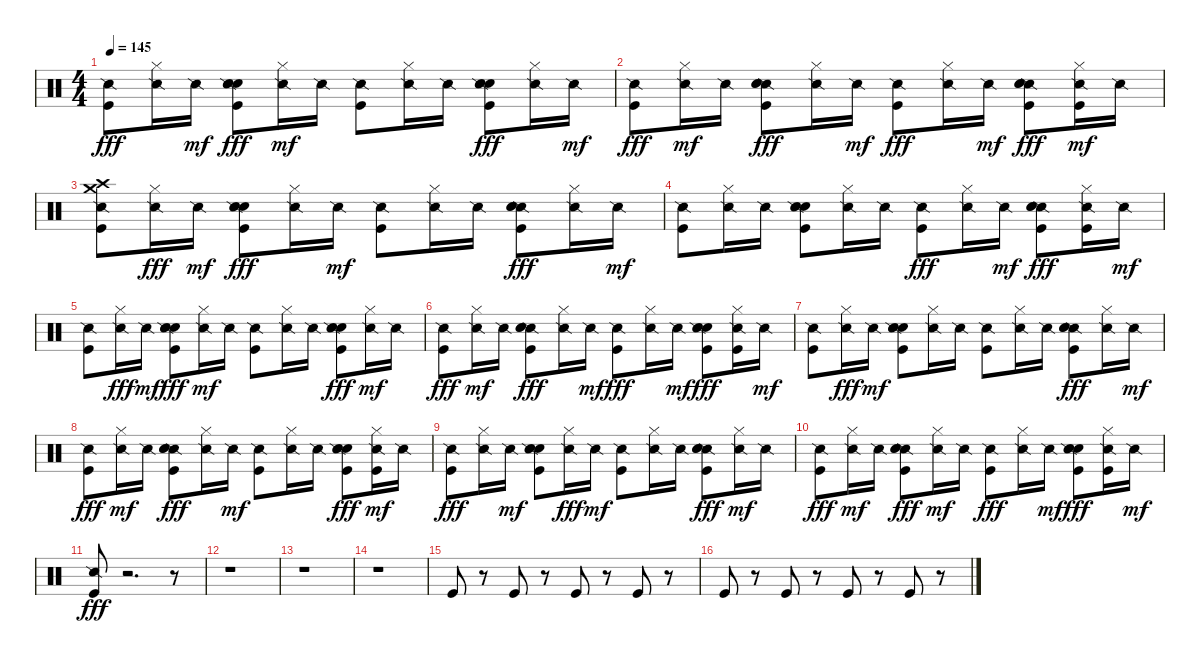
\track "" {instrument percussion}
\staff {score}
\articulation defaults
\ts (4 4)
\tempo 145
\clef neutral
\ks c
("Snare (side stick) 2" "Kick (hit)").8{dy fff} ("Snare (side stick) 2" "Hi-Hat (closed)").16 "Snare (side stick) 2".16{dy mf} ("Electric Snare (hit)" "Snare (side stick) 2" "Kick (hit)" "Hand Clap (hit)").8{dy fff} ("Hi-Hat (closed)" "Snare (side stick) 2").16{dy mf} "Snare (side stick) 2".16 ("Kick (hit)" "Snare (side stick) 2").8 ("Hi-Hat (closed)" "Snare (side stick) 2").16 "Snare (side stick) 2".16 ("Hand Clap (hit)" "Snare (side stick) 2" "Kick (hit)" "Electric Snare (hit)").8{dy fff} ("Snare (side stick) 2" "Hi-Hat (closed)").16 "Snare (side stick) 2".16{dy mf} |
("Snare (side stick) 2" "Kick (hit)").8{dy fff} ("Hi-Hat (closed)" "Snare (side stick) 2").16{dy mf} "Snare (side stick) 2".16 ("Snare (side stick) 2" "Hand Clap (hit)" "Electric Snare (hit)" "Kick (hit)").8{dy fff} ("Snare (side stick) 2" "Hi-Hat (closed)").16 "Snare (side stick) 2".16{dy mf} ("Snare (side stick) 2" "Kick (hit)").8{dy fff} ("Snare (side stick) 2" "Hi-Hat (closed)").16 "Snare (side stick) 2".16{dy mf} ("Snare (side stick) 2" "Kick (hit)" "Electric Snare (hit)" "Hand Clap (hit)").8{dy fff} ("Kick (hit)" "Hi-Hat (closed)" "Snare (side stick) 2").16{dy mf} "Snare (side stick) 2".16 |
("Kick (hit)" "Crash medium (hit)" "Snare (side stick) 2" "Crash high (hit)").8 ("Snare (side stick) 2" "Hi-Hat (closed)").16{dy fff} "Snare (side stick) 2".16{dy mf} ("Electric Snare (hit)" "Hand Clap (hit)" "Snare (side stick) 2" "Kick (hit)").8{dy fff} ("Snare (side stick) 2" "Hi-Hat (closed)").16 "Snare (side stick) 2".16{dy mf} ("Kick (hit)" "Snare (side stick) 2").8 ("Hi-Hat (closed)" "Snare (side stick) 2").16 "Snare (side stick) 2".16 ("Snare (side stick) 2" "Hand Clap (hit)" "Kick (hit)" "Electric Snare (hit)").8{dy fff} ("Snare (side stick) 2" "Hi-Hat (closed)").16 "Snare (side stick) 2".16{dy mf} |
("Kick (hit)" "Snare (side stick) 2").8 ("Hi-Hat (closed)" "Snare (side stick) 2").16 "Snare (side stick) 2".16 ("Hand Clap (hit)" "Electric Snare (hit)" "Kick (hit)" "Snare (side stick) 2").8 ("Hi-Hat (closed)" "Snare (side stick) 2").16 "Snare (side stick) 2".16 ("Snare (side stick) 2" "Kick (hit)").8{dy fff} ("Snare (side stick) 2" "Hi-Hat (closed)").16 "Snare (side stick) 2".16{dy mf} ("Snare (side stick) 2" "Hand Clap (hit)" "Electric Snare (hit)" "Kick (hit)").8{dy fff} ("Kick (hit)" "Snare (side stick) 2" "Hi-Hat (closed)").16 "Snare (side stick) 2".16{dy mf} |
("Kick (hit)" "Snare (side stick) 2").8 ("Snare (side stick) 2" "Hi-Hat (closed)").16{dy fff} "Snare (side stick) 2".16{dy mf} ("Electric Snare (hit)" "Snare (side stick) 2" "Kick (hit)" "Hand Clap (hit)").8{dy fff} ("Hi-Hat (closed)" "Snare (side stick) 2").16{dy mf} "Snare (side stick) 2".16 ("Kick (hit)" "Snare (side stick) 2").8 ("Hi-Hat (closed)" "Snare (side stick) 2").16 "Snare (side stick) 2".16 ("Electric Snare (hit)" "Snare (side stick) 2" "Kick (hit)" "Hand Clap (hit)").8{dy fff} ("Hi-Hat (closed)" "Snare (side stick) 2").16{dy mf} "Snare (side stick) 2".16 |
("Snare (side stick) 2" "Kick (hit)").8{dy fff} ("Hi-Hat (closed)" "Snare (side stick) 2").16{dy mf} "Snare (side stick) 2".16 ("Snare (side stick) 2" "Hand Clap (hit)" "Electric Snare (hit)" "Kick (hit)").8{dy fff} ("Snare (side stick) 2" "Hi-Hat (closed)").16 "Snare (side stick) 2".16{dy mf} ("Snare (side stick) 2" "Kick (hit)").8{dy fff} ("Snare (side stick) 2" "Hi-Hat (closed)").16 "Snare (side stick) 2".16{dy mf} ("Hand Clap (hit)" "Electric Snare (hit)" "Snare (side stick) 2" "Kick (hit)").8{dy fff} ("Snare (side stick) 2" "Kick (hit)" "Hi-Hat (closed)").16 "Snare (side stick) 2".16{dy mf} |
("Kick (hit)" "Snare (side stick) 2").8 ("Snare (side stick) 2" "Hi-Hat (closed)").16{dy fff} "Snare (side stick) 2".16{dy mf} ("Hand Clap (hit)" "Electric Snare (hit)" "Kick (hit)" "Snare (side stick) 2").8 ("Hi-Hat (closed)" "Snare (side stick) 2").16 "Snare (side stick) 2".16 ("Kick (hit)" "Snare (side stick) 2").8 ("Hi-Hat (closed)" "Snare (side stick) 2").16 "Snare (side stick) 2".16 ("Snare (side stick) 2" "Hand Clap (hit)" "Kick (hit)" "Electric Snare (hit)").8{dy fff} ("Snare (side stick) 2" "Hi-Hat (closed)").16 "Snare (side stick) 2".16{dy mf} |
("Snare (side stick) 2" "Kick (hit)").8{dy fff} ("Hi-Hat (closed)" "Snare (side stick) 2").16{dy mf} "Snare (side stick) 2".16 ("Snare (side stick) 2" "Electric Snare (hit)" "Hand Clap (hit)" "Kick (hit)").8{dy fff} ("Snare (side stick) 2" "Hi-Hat (closed)").16 "Snare (side stick) 2".16{dy mf} ("Kick (hit)" "Snare (side stick) 2").8 ("Hi-Hat (closed)" "Snare (side stick) 2").16 "Snare (side stick) 2".16 ("Electric Snare (hit)" "Snare (side stick) 2" "Kick (hit)" "Hand Clap (hit)").8{dy fff} ("Kick (hit)" "Hi-Hat (closed)" "Snare (side stick) 2").16{dy mf} "Snare (side stick) 2".16 |
("Snare (side stick) 2" "Kick (hit)").8{dy fff} ("Snare (side stick) 2" "Hi-Hat (closed)").16 "Snare (side stick) 2".16{dy mf} ("Kick (hit)" "Hand Clap (hit)" "Snare (side stick) 2" "Electric Snare (hit)").8 ("Snare (side stick) 2" "Hi-Hat (closed)").16{dy fff} "Snare (side stick) 2".16{dy mf} ("Kick (hit)" "Snare (side stick) 2").8 ("Hi-Hat (closed)" "Snare (side stick) 2").16 "Snare (side stick) 2".16 ("Snare (side stick) 2" "Kick (hit)" "Electric Snare (hit)" "Hand Clap (hit)").8{dy fff} ("Hi-Hat (closed)" "Snare (side stick) 2").16{dy mf} "Snare (side stick) 2".16 |
("Snare (side stick) 2" "Kick (hit)").8{dy fff} ("Hi-Hat (closed)" "Snare (side stick) 2").16{dy mf} "Snare (side stick) 2".16 ("Snare (side stick) 2" "Kick (hit)" "Electric Snare (hit)" "Hand Clap (hit)").8{dy fff} ("Hi-Hat (closed)" "Snare (side stick) 2").16{dy mf} "Snare (side stick) 2".16 ("Snare (side stick) 2" "Kick (hit)").8{dy fff} ("Snare (side stick) 2" "Hi-Hat (closed)").16 "Snare (side stick) 2".16{dy mf} ("Hand Clap (hit)" "Snare (side stick) 2" "Kick (hit)" "Electric Snare (hit)").8{dy fff} ("Kick (hit)" "Snare (side stick) 2" "Hi-Hat (closed)").16 "Snare (side stick) 2".16{dy mf} |
("Snare (side stick) 2" "Kick (hit)").8{dy fff} r.2{d} r.8 |
r.1 |
r.1 |
r.1 |
"Kick (hit)".8 r.8 "Kick (hit)".8 r.8 "Kick (hit)".8 r.8 "Kick (hit)".8 r.8 |
"Kick (hit)".8 r.8 "Kick (hit)".8 r.8 "Kick (hit)".8 r.8 "Kick (hit)".8 r.8
